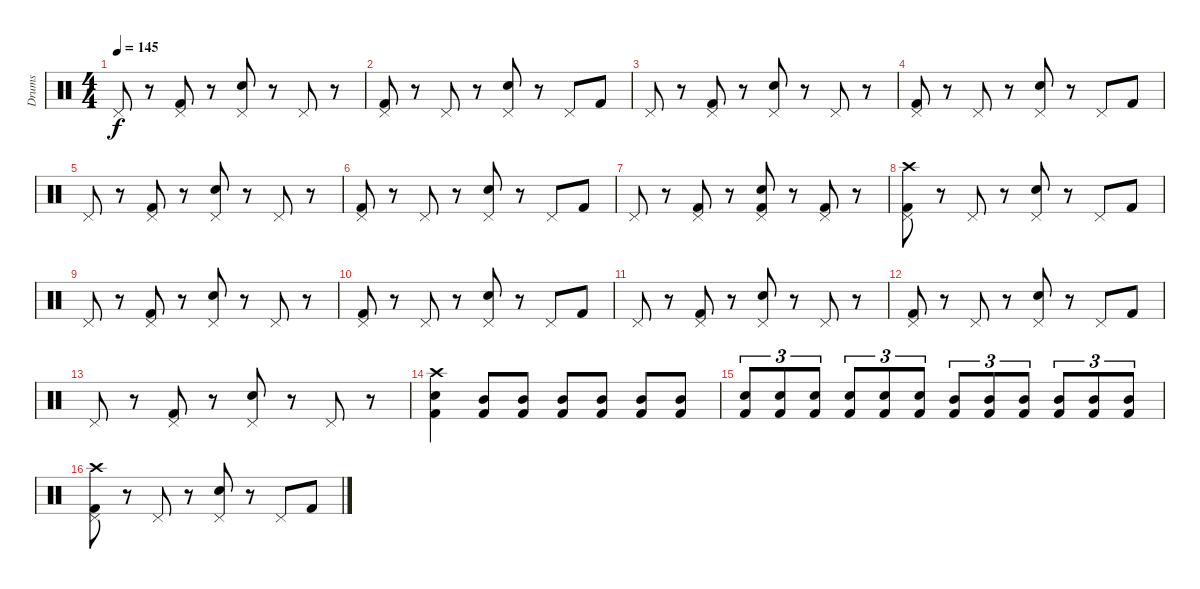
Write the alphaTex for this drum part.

\track ("Drums" "Drums") {instrument percussion}
\staff {score}
\articulation defaults
\ts (4 4)
\tempo 145
\clef neutral
\ks c "Pedal Hi-Hat (hit)".8{dy f}
r.8 ("Pedal Hi-Hat (hit)" "Kick (hit) 2").8 r.8 ("Pedal Hi-Hat (hit)" "Snare (hit) 2").8 r.8 "Pedal Hi-Hat (hit)".8 r.8 |
("Pedal Hi-Hat (hit)" "Kick (hit) 2").8 r.8 "Pedal Hi-Hat (hit)".8 r.8 ("Pedal Hi-Hat (hit)" "Snare (hit) 2").8 r.8 "Pedal Hi-Hat (hit)".8 "Kick (hit) 2".8 |
"Pedal Hi-Hat (hit)".8 r.8 ("Pedal Hi-Hat (hit)" "Kick (hit) 2").8 r.8 ("Pedal Hi-Hat (hit)" "Snare (hit) 2").8 r.8 "Pedal Hi-Hat (hit)".8 r.8 |
("Pedal Hi-Hat (hit)" "Kick (hit) 2").8 r.8 "Pedal Hi-Hat (hit)".8 r.8 ("Pedal Hi-Hat (hit)" "Snare (hit) 2").8 r.8 "Pedal Hi-Hat (hit)".8 "Kick (hit) 2".8 |
"Pedal Hi-Hat (hit)".8 r.8 ("Pedal Hi-Hat (hit)" "Kick (hit) 2").8 r.8 ("Pedal Hi-Hat (hit)" "Snare (hit) 2").8 r.8 "Pedal Hi-Hat (hit)".8 r.8 |
("Pedal Hi-Hat (hit)" "Kick (hit) 2").8 r.8 "Pedal Hi-Hat (hit)".8 r.8 ("Pedal Hi-Hat (hit)" "Snare (hit) 2").8 r.8 "Pedal Hi-Hat (hit)".8 "Kick (hit) 2".8 |
"Pedal Hi-Hat (hit)".8 r.8 ("Pedal Hi-Hat (hit)" "Kick (hit) 2").8 r.8 ("Pedal Hi-Hat (hit)" "Snare (hit) 2" "Kick (hit) 2").8 r.8 ("Pedal Hi-Hat (hit)" "Kick (hit) 2").8 r.8 |
("Pedal Hi-Hat (hit)" "Kick (hit) 2" "Crash high (hit)").8 r.8 "Pedal Hi-Hat (hit)".8 r.8 ("Pedal Hi-Hat (hit)" "Snare (hit) 2").8 r.8 "Pedal Hi-Hat (hit)".8 "Kick (hit) 2".8 |
"Pedal Hi-Hat (hit)".8 r.8 ("Pedal Hi-Hat (hit)" "Kick (hit) 2").8 r.8 ("Pedal Hi-Hat (hit)" "Snare (hit) 2").8 r.8 "Pedal Hi-Hat (hit)".8 r.8 |
("Pedal Hi-Hat (hit)" "Kick (hit) 2").8 r.8 "Pedal Hi-Hat (hit)".8 r.8 ("Pedal Hi-Hat (hit)" "Snare (hit) 2").8 r.8 "Pedal Hi-Hat (hit)".8 "Kick (hit) 2".8 |
"Pedal Hi-Hat (hit)".8 r.8 ("Pedal Hi-Hat (hit)" "Kick (hit) 2").8 r.8 ("Pedal Hi-Hat (hit)" "Snare (hit) 2").8 r.8 "Pedal Hi-Hat (hit)".8 r.8 |
("Pedal Hi-Hat (hit)" "Kick (hit) 2").8 r.8 "Pedal Hi-Hat (hit)".8 r.8 ("Pedal Hi-Hat (hit)" "Snare (hit) 2").8 r.8 "Pedal Hi-Hat (hit)".8 "Kick (hit) 2".8 |
"Pedal Hi-Hat (hit)".8 r.8 ("Pedal Hi-Hat (hit)" "Kick (hit) 2").8 r.8 ("Pedal Hi-Hat (hit)" "Snare (hit) 2").8 r.8 "Pedal Hi-Hat (hit)".8 r.8 |
("Kick (hit) 2" "Snare (hit) 2" "Crash high (hit)").4 ("Mid Tom (hit)" "Kick (hit) 2").8 ("Mid Tom (hit)" "Kick (hit) 2").8 ("Mid Tom (hit)" "Kick (hit) 2").8 ("Mid Tom (hit)" "Kick (hit) 2").8 ("Mid Tom (hit)" "Kick (hit) 2").8 ("Mid Tom (hit)" "Kick (hit) 2").8 |
("Snare (hit) 2" "Kick (hit) 2").8{tu (3 2)} ("Snare (hit) 2" "Kick (hit) 2").8{tu (3 2)} ("Snare (hit) 2" "Kick (hit) 2").8{tu (3 2)} ("Snare (hit) 2" "Kick (hit) 2").8{tu (3 2)} ("Snare (hit) 2" "Kick (hit) 2").8{tu (3 2)} ("Snare (hit) 2" "Kick (hit) 2").8{tu (3 2)} ("Mid Tom (hit)" "Kick (hit) 2").8{tu (3 2)} ("Mid Tom (hit)" "Kick (hit) 2").8{tu (3 2)} ("Mid Tom (hit)" "Kick (hit) 2").8{tu (3 2)} ("Mid Tom (hit)" "Kick (hit) 2").8{tu (3 2)} ("Mid Tom (hit)" "Kick (hit) 2").8{tu (3 2)} ("Mid Tom (hit)" "Kick (hit) 2").8{tu (3 2)} |
("Pedal Hi-Hat (hit)" "Kick (hit) 2" "Crash high (hit)").8 r.8 "Pedal Hi-Hat (hit)".8 r.8 ("Pedal Hi-Hat (hit)" "Snare (hit) 2").8 r.8 "Pedal Hi-Hat (hit)".8 "Kick (hit) 2".8
